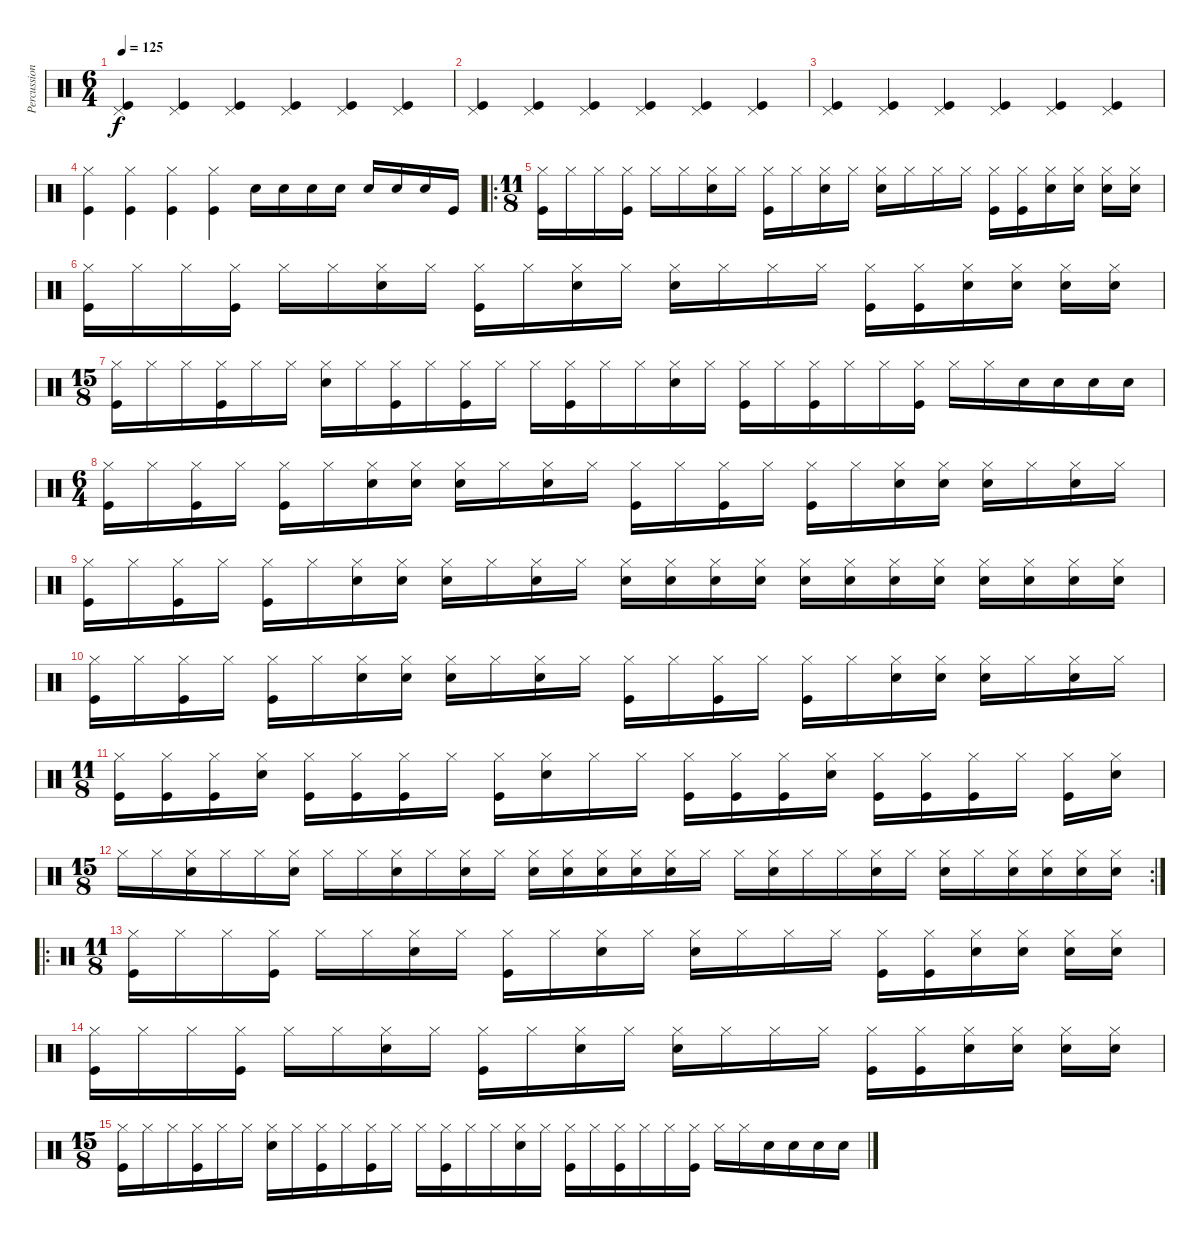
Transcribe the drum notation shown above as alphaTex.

\track ("Percussion" "Percussion") {instrument percussion}
\staff {score}
\articulation defaults
\ts (6 4)
\tempo 125
\clef neutral
\ks c
("Kick (hit)" "Pedal Hi-Hat (hit)").4{dy f} ("Kick (hit)" "Pedal Hi-Hat (hit)").4 ("Kick (hit)" "Pedal Hi-Hat (hit)").4 ("Kick (hit)" "Pedal Hi-Hat (hit)").4 ("Kick (hit)" "Pedal Hi-Hat (hit)").4 ("Kick (hit)" "Pedal Hi-Hat (hit)").4 |
("Kick (hit)" "Pedal Hi-Hat (hit)").4 ("Kick (hit)" "Pedal Hi-Hat (hit)").4 ("Kick (hit)" "Pedal Hi-Hat (hit)").4 ("Kick (hit)" "Pedal Hi-Hat (hit)").4 ("Kick (hit)" "Pedal Hi-Hat (hit)").4 ("Kick (hit)" "Pedal Hi-Hat (hit)").4 |
("Kick (hit)" "Pedal Hi-Hat (hit)").4 ("Kick (hit)" "Pedal Hi-Hat (hit)").4 ("Kick (hit)" "Pedal Hi-Hat (hit)").4 ("Kick (hit)" "Pedal Hi-Hat (hit)").4 ("Kick (hit)" "Pedal Hi-Hat (hit)").4 ("Kick (hit)" "Pedal Hi-Hat (hit)").4 |
("Kick (hit)" "Hi-Hat (closed)").4 ("Kick (hit)" "Hi-Hat (closed)").4 ("Kick (hit)" "Hi-Hat (closed)").4 ("Kick (hit)" "Hi-Hat (closed)").4 "Snare (hit) 2".16 "Snare (hit) 2".16 "Snare (hit) 2".16 "Snare (hit) 2".16 "Snare (hit) 2".16 "Snare (hit) 2".16 "Snare (hit) 2".16 "Kick (hit)".16 |
\ro
\ts (11 8)
("Hi-Hat (closed)" "Kick (hit)").16 "Hi-Hat (closed)".16 "Hi-Hat (closed)".16 ("Hi-Hat (closed)" "Kick (hit)").16 "Hi-Hat (closed)".16 "Hi-Hat (closed)".16 ("Hi-Hat (closed)" "Snare (hit) 2").16 "Hi-Hat (closed)".16 ("Hi-Hat (closed)" "Kick (hit)").16 "Hi-Hat (closed)".16 ("Hi-Hat (closed)" "Snare (hit) 2").16 "Hi-Hat (closed)".16 ("Hi-Hat (closed)" "Snare (hit) 2").16 "Hi-Hat (closed)".16 "Hi-Hat (closed)".16 "Hi-Hat (closed)".16 ("Hi-Hat (closed)" "Kick (hit)").16 ("Hi-Hat (closed)" "Kick (hit)").16 ("Hi-Hat (closed)" "Snare (hit) 2").16 ("Hi-Hat (closed)" "Snare (hit) 2").16 ("Hi-Hat (closed)" "Snare (hit) 2").16 ("Hi-Hat (closed)" "Snare (hit) 2").16 |
("Hi-Hat (closed)" "Kick (hit)").16 "Hi-Hat (closed)".16 "Hi-Hat (closed)".16 ("Hi-Hat (closed)" "Kick (hit)").16 "Hi-Hat (closed)".16 "Hi-Hat (closed)".16 ("Hi-Hat (closed)" "Snare (hit) 2").16 "Hi-Hat (closed)".16 ("Hi-Hat (closed)" "Kick (hit)").16 "Hi-Hat (closed)".16 ("Hi-Hat (closed)" "Snare (hit) 2").16 "Hi-Hat (closed)".16 ("Hi-Hat (closed)" "Snare (hit) 2").16 "Hi-Hat (closed)".16 "Hi-Hat (closed)".16 "Hi-Hat (closed)".16 ("Hi-Hat (closed)" "Kick (hit)").16 ("Hi-Hat (closed)" "Kick (hit)").16 ("Hi-Hat (closed)" "Snare (hit) 2").16 ("Hi-Hat (closed)" "Snare (hit) 2").16 ("Hi-Hat (closed)" "Snare (hit) 2").16 ("Hi-Hat (closed)" "Snare (hit) 2").16 |
\ts (15 8)
("Kick (hit)" "Hi-Hat (closed)").16 "Hi-Hat (closed)".16 "Hi-Hat (closed)".16 ("Kick (hit)" "Hi-Hat (closed)").16 "Hi-Hat (closed)".16 "Hi-Hat (closed)".16 ("Snare (hit) 2" "Hi-Hat (closed)").16 "Hi-Hat (closed)".16 ("Kick (hit)" "Hi-Hat (closed)").16 "Hi-Hat (closed)".16 ("Kick (hit)" "Hi-Hat (closed)").16 "Hi-Hat (closed)".16 "Hi-Hat (closed)".16 ("Kick (hit)" "Hi-Hat (closed)").16 "Hi-Hat (closed)".16 "Hi-Hat (closed)".16 ("Snare (hit) 2" "Hi-Hat (closed)").16 "Hi-Hat (closed)".16 ("Kick (hit)" "Hi-Hat (closed)").16 "Hi-Hat (closed)".16 ("Kick (hit)" "Hi-Hat (closed)").16 "Hi-Hat (closed)".16 "Hi-Hat (closed)".16 ("Kick (hit)" "Hi-Hat (closed)").16 "Hi-Hat (closed)".16 "Hi-Hat (closed)".16 "Snare (hit) 2".16 "Snare (hit) 2".16 "Snare (hit) 2".16 "Snare (hit) 2".16 |
\ts (6 4)
("Kick (hit)" "Hi-Hat (closed)").16 "Hi-Hat (closed)".16 ("Kick (hit)" "Hi-Hat (closed)").16 "Hi-Hat (closed)".16 ("Kick (hit)" "Hi-Hat (closed)").16 "Hi-Hat (closed)".16 ("Snare (hit) 2" "Hi-Hat (closed)").16 ("Snare (hit) 2" "Hi-Hat (closed)").16 ("Snare (hit) 2" "Hi-Hat (closed)").16 "Hi-Hat (closed)".16 ("Snare (hit) 2" "Hi-Hat (closed)").16 "Hi-Hat (closed)".16 ("Kick (hit)" "Hi-Hat (closed)").16 "Hi-Hat (closed)".16 ("Kick (hit)" "Hi-Hat (closed)").16 "Hi-Hat (closed)".16 ("Kick (hit)" "Hi-Hat (closed)").16 "Hi-Hat (closed)".16 ("Snare (hit) 2" "Hi-Hat (closed)").16 ("Snare (hit) 2" "Hi-Hat (closed)").16 ("Snare (hit) 2" "Hi-Hat (closed)").16 "Hi-Hat (closed)".16 ("Snare (hit) 2" "Hi-Hat (closed)").16 "Hi-Hat (closed)".16 |
("Kick (hit)" "Hi-Hat (closed)").16 "Hi-Hat (closed)".16 ("Kick (hit)" "Hi-Hat (closed)").16 "Hi-Hat (closed)".16 ("Kick (hit)" "Hi-Hat (closed)").16 "Hi-Hat (closed)".16 ("Snare (hit) 2" "Hi-Hat (closed)").16 ("Snare (hit) 2" "Hi-Hat (closed)").16 ("Snare (hit) 2" "Hi-Hat (closed)").16 "Hi-Hat (closed)".16 ("Snare (hit) 2" "Hi-Hat (closed)").16 "Hi-Hat (closed)".16 ("Snare (hit) 2" "Hi-Hat (closed)").16 ("Snare (hit) 2" "Hi-Hat (closed)").16 ("Snare (hit) 2" "Hi-Hat (closed)").16 ("Snare (hit) 2" "Hi-Hat (closed)").16 ("Snare (hit) 2" "Hi-Hat (closed)").16 ("Snare (hit) 2" "Hi-Hat (closed)").16 ("Snare (hit) 2" "Hi-Hat (closed)").16 ("Snare (hit) 2" "Hi-Hat (closed)").16 ("Snare (hit) 2" "Hi-Hat (closed)").16 ("Snare (hit) 2" "Hi-Hat (closed)").16 ("Snare (hit) 2" "Hi-Hat (closed)").16 ("Snare (hit) 2" "Hi-Hat (closed)").16 |
("Kick (hit)" "Hi-Hat (closed)").16 "Hi-Hat (closed)".16 ("Kick (hit)" "Hi-Hat (closed)").16 "Hi-Hat (closed)".16 ("Kick (hit)" "Hi-Hat (closed)").16 "Hi-Hat (closed)".16 ("Snare (hit) 2" "Hi-Hat (closed)").16 ("Snare (hit) 2" "Hi-Hat (closed)").16 ("Snare (hit) 2" "Hi-Hat (closed)").16 "Hi-Hat (closed)".16 ("Snare (hit) 2" "Hi-Hat (closed)").16 "Hi-Hat (closed)".16 ("Kick (hit)" "Hi-Hat (closed)").16 "Hi-Hat (closed)".16 ("Kick (hit)" "Hi-Hat (closed)").16 "Hi-Hat (closed)".16 ("Kick (hit)" "Hi-Hat (closed)").16 "Hi-Hat (closed)".16 ("Snare (hit) 2" "Hi-Hat (closed)").16 ("Snare (hit) 2" "Hi-Hat (closed)").16 ("Snare (hit) 2" "Hi-Hat (closed)").16 "Hi-Hat (closed)".16 ("Snare (hit) 2" "Hi-Hat (closed)").16 "Hi-Hat (closed)".16 |
\ts (11 8)
("Kick (hit)" "Hi-Hat (closed)").16 ("Kick (hit)" "Hi-Hat (closed)").16 ("Kick (hit)" "Hi-Hat (closed)").16 ("Snare (hit) 2" "Hi-Hat (closed)").16 ("Kick (hit)" "Hi-Hat (closed)").16 ("Kick (hit)" "Hi-Hat (closed)").16 ("Kick (hit)" "Hi-Hat (closed)").16 "Hi-Hat (closed)".16 ("Kick (hit)" "Hi-Hat (closed)").16 ("Snare (hit) 2" "Hi-Hat (closed)").16 "Hi-Hat (closed)".16 "Hi-Hat (closed)".16 ("Kick (hit)" "Hi-Hat (closed)").16 ("Kick (hit)" "Hi-Hat (closed)").16 ("Kick (hit)" "Hi-Hat (closed)").16 ("Snare (hit) 2" "Hi-Hat (closed)").16 ("Kick (hit)" "Hi-Hat (closed)").16 ("Kick (hit)" "Hi-Hat (closed)").16 ("Kick (hit)" "Hi-Hat (closed)").16 "Hi-Hat (closed)".16 ("Kick (hit)" "Hi-Hat (closed)").16 ("Snare (hit) 2" "Hi-Hat (closed)").16 |
\rc 2
\ts (15 8)
"Hi-Hat (closed)".16 "Hi-Hat (closed)".16 ("Snare (hit) 2" "Hi-Hat (closed)").16 "Hi-Hat (closed)".16 "Hi-Hat (closed)".16 ("Snare (hit) 2" "Hi-Hat (closed)").16 "Hi-Hat (closed)".16 "Hi-Hat (closed)".16 ("Snare (hit) 2" "Hi-Hat (closed)").16 "Hi-Hat (closed)".16 ("Snare (hit) 2" "Hi-Hat (closed)").16 "Hi-Hat (closed)".16 ("Snare (hit) 2" "Hi-Hat (closed)").16 ("Snare (hit) 2" "Hi-Hat (closed)").16 ("Snare (hit) 2" "Hi-Hat (closed)").16 ("Snare (hit) 2" "Hi-Hat (closed)").16 ("Snare (hit) 2" "Hi-Hat (closed)").16 "Hi-Hat (closed)".16 "Hi-Hat (closed)".16 ("Snare (hit) 2" "Hi-Hat (closed)").16 "Hi-Hat (closed)".16 "Hi-Hat (closed)".16 ("Snare (hit) 2" "Hi-Hat (closed)").16 "Hi-Hat (closed)".16 ("Snare (hit) 2" "Hi-Hat (closed)").16 "Hi-Hat (closed)".16 ("Snare (hit) 2" "Hi-Hat (closed)").16 ("Snare (hit) 2" "Hi-Hat (closed)").16 ("Snare (hit) 2" "Hi-Hat (closed)").16 ("Snare (hit) 2" "Hi-Hat (closed)").16 |
\ro
\ts (11 8)
("Hi-Hat (closed)" "Kick (hit)").16 "Hi-Hat (closed)".16 "Hi-Hat (closed)".16 ("Hi-Hat (closed)" "Kick (hit)").16 "Hi-Hat (closed)".16 "Hi-Hat (closed)".16 ("Hi-Hat (closed)" "Snare (hit) 2").16 "Hi-Hat (closed)".16 ("Hi-Hat (closed)" "Kick (hit)").16 "Hi-Hat (closed)".16 ("Hi-Hat (closed)" "Snare (hit) 2").16 "Hi-Hat (closed)".16 ("Hi-Hat (closed)" "Snare (hit) 2").16 "Hi-Hat (closed)".16 "Hi-Hat (closed)".16 "Hi-Hat (closed)".16 ("Hi-Hat (closed)" "Kick (hit)").16 ("Hi-Hat (closed)" "Kick (hit)").16 ("Hi-Hat (closed)" "Snare (hit) 2").16 ("Hi-Hat (closed)" "Snare (hit) 2").16 ("Hi-Hat (closed)" "Snare (hit) 2").16 ("Hi-Hat (closed)" "Snare (hit) 2").16 |
("Hi-Hat (closed)" "Kick (hit)").16 "Hi-Hat (closed)".16 "Hi-Hat (closed)".16 ("Hi-Hat (closed)" "Kick (hit)").16 "Hi-Hat (closed)".16 "Hi-Hat (closed)".16 ("Hi-Hat (closed)" "Snare (hit) 2").16 "Hi-Hat (closed)".16 ("Hi-Hat (closed)" "Kick (hit)").16 "Hi-Hat (closed)".16 ("Hi-Hat (closed)" "Snare (hit) 2").16 "Hi-Hat (closed)".16 ("Hi-Hat (closed)" "Snare (hit) 2").16 "Hi-Hat (closed)".16 "Hi-Hat (closed)".16 "Hi-Hat (closed)".16 ("Hi-Hat (closed)" "Kick (hit)").16 ("Hi-Hat (closed)" "Kick (hit)").16 ("Hi-Hat (closed)" "Snare (hit) 2").16 ("Hi-Hat (closed)" "Snare (hit) 2").16 ("Hi-Hat (closed)" "Snare (hit) 2").16 ("Hi-Hat (closed)" "Snare (hit) 2").16 |
\ts (15 8)
("Kick (hit)" "Hi-Hat (closed)").16 "Hi-Hat (closed)".16 "Hi-Hat (closed)".16 ("Kick (hit)" "Hi-Hat (closed)").16 "Hi-Hat (closed)".16 "Hi-Hat (closed)".16 ("Snare (hit) 2" "Hi-Hat (closed)").16 "Hi-Hat (closed)".16 ("Kick (hit)" "Hi-Hat (closed)").16 "Hi-Hat (closed)".16 ("Kick (hit)" "Hi-Hat (closed)").16 "Hi-Hat (closed)".16 "Hi-Hat (closed)".16 ("Kick (hit)" "Hi-Hat (closed)").16 "Hi-Hat (closed)".16 "Hi-Hat (closed)".16 ("Snare (hit) 2" "Hi-Hat (closed)").16 "Hi-Hat (closed)".16 ("Kick (hit)" "Hi-Hat (closed)").16 "Hi-Hat (closed)".16 ("Kick (hit)" "Hi-Hat (closed)").16 "Hi-Hat (closed)".16 "Hi-Hat (closed)".16 ("Kick (hit)" "Hi-Hat (closed)").16 "Hi-Hat (closed)".16 "Hi-Hat (closed)".16 "Snare (hit) 2".16 "Snare (hit) 2".16 "Snare (hit) 2".16 "Snare (hit) 2".16
